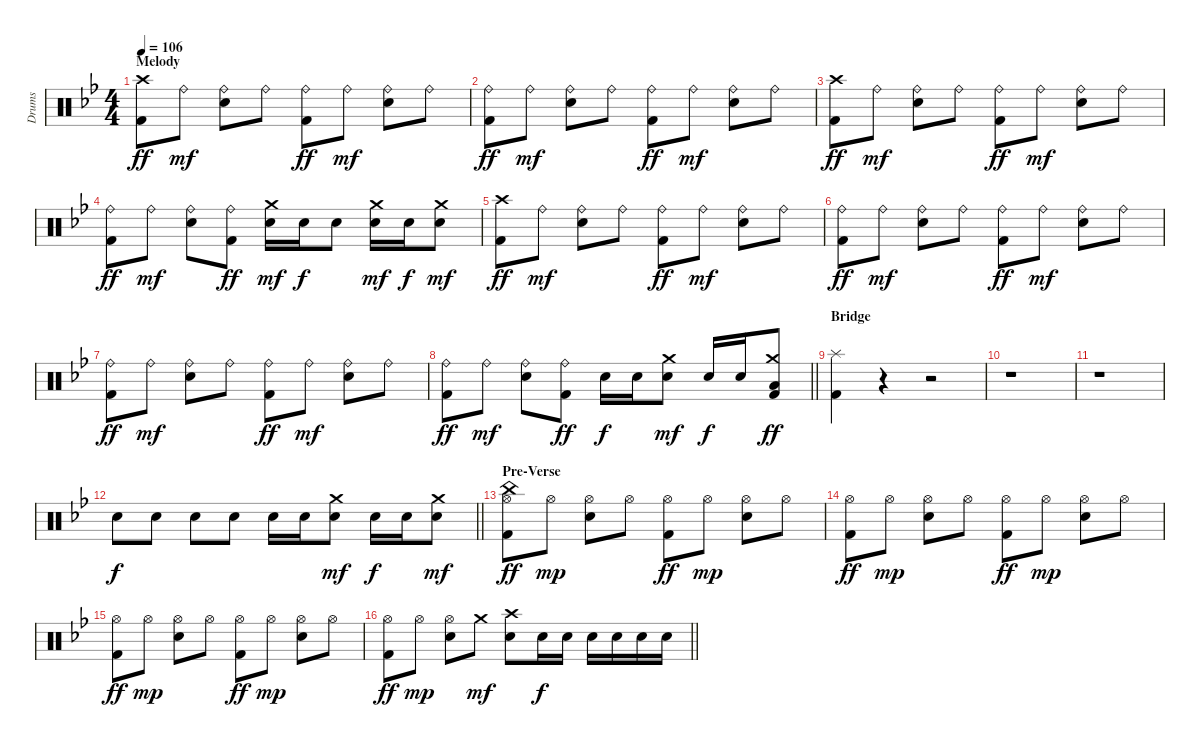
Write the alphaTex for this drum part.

\track ("Drums" "Drums") {instrument percussion}
\staff {score}
\articulation defaults
\ts (4 4)
\section ("" "Melody")
\tempo 106
\clef neutral
\ks bb
("Crash high (hit)" "Kick (hit) 2").8{dy ff} "Ride (bell)".8{dy mf} ("Ride (bell)" "Electric Snare (hit)").8 "Ride (bell)".8 ("Ride (bell)" "Kick (hit) 2").8{dy ff} "Ride (bell)".8{dy mf} ("Ride (bell)" "Electric Snare (hit)").8 "Ride (bell)".8 |
("Ride (bell)" "Kick (hit) 2").8{dy ff} "Ride (bell)".8{dy mf} ("Ride (bell)" "Electric Snare (hit)").8 "Ride (bell)".8 ("Ride (bell)" "Kick (hit) 2").8{dy ff} "Ride (bell)".8{dy mf} ("Ride (bell)" "Electric Snare (hit)").8 "Ride (bell)".8 |
("Crash high (hit)" "Kick (hit) 2").8{dy ff} "Ride (bell)".8{dy mf} ("Ride (bell)" "Electric Snare (hit)").8 "Ride (bell)".8 ("Ride (bell)" "Kick (hit) 2").8{dy ff} "Ride (bell)".8{dy mf} ("Ride (bell)" "Electric Snare (hit)").8 "Ride (bell)".8 |
("Ride (bell)" "Kick (hit) 2").8{dy ff} "Ride (bell)".8{dy mf} ("Ride (bell)" "Electric Snare (hit)").8 ("Ride (bell)" "Kick (hit) 2").8{dy ff} ("Crash medium (hit)" "Electric Snare (hit)").16{dy mf} "Electric Snare (hit)".16{dy f} "Electric Snare (hit)".8 ("Crash medium (hit)" "Electric Snare (hit)").16{dy mf} "Electric Snare (hit)".16{dy f} ("Crash medium (hit)" "Electric Snare (hit)").8{dy mf} |
("Crash high (hit)" "Kick (hit) 2").8{dy ff} "Ride (bell)".8{dy mf} ("Ride (bell)" "Electric Snare (hit)").8 "Ride (bell)".8 ("Ride (bell)" "Kick (hit) 2").8{dy ff} "Ride (bell)".8{dy mf} ("Ride (bell)" "Electric Snare (hit)").8 "Ride (bell)".8 |
("Ride (bell)" "Kick (hit) 2").8{dy ff} "Ride (bell)".8{dy mf} ("Ride (bell)" "Electric Snare (hit)").8 "Ride (bell)".8 ("Ride (bell)" "Kick (hit) 2").8{dy ff} "Ride (bell)".8{dy mf} ("Ride (bell)" "Electric Snare (hit)").8 "Ride (bell)".8 |
("Ride (bell)" "Kick (hit) 2").8{dy ff} "Ride (bell)".8{dy mf} ("Ride (bell)" "Electric Snare (hit)").8 "Ride (bell)".8 ("Ride (bell)" "Kick (hit) 2").8{dy ff} "Ride (bell)".8{dy mf} ("Ride (bell)" "Electric Snare (hit)").8 "Ride (bell)".8 |
\barLineRight lightlight
("Ride (bell)" "Kick (hit) 2").8{dy ff} "Ride (bell)".8{dy mf} ("Ride (bell)" "Electric Snare (hit)").8 ("Ride (bell)" "Kick (hit) 2").8{dy ff} "Electric Snare (hit)".16{dy f} "Electric Snare (hit)".16 ("Crash medium (hit)" "Electric Snare (hit)").8{dy mf} "Electric Snare (hit)".16{dy f} "Electric Snare (hit)".16 ("Crash medium (hit)" "Low Tom (hit)" "Kick (hit) 2").8{dy ff} |
\section ("" "Bridge")
("Splash (hit)" "Kick (hit) 2").4 r.4 r.2 |
r.1 |
r.1 |
\barLineRight lightlight "Electric Snare (hit)".8{dy f} "Electric Snare (hit)".8 "Electric Snare (hit)".8 "Electric Snare (hit)".8 "Electric Snare (hit)".16 "Electric Snare (hit)".16
("Crash medium (hit)" "Electric Snare (hit)").8{dy mf} "Electric Snare (hit)".16{dy f} "Electric Snare (hit)".16 ("Crash medium (hit)" "Electric Snare (hit)").8{dy mf} |
\section ("" "Pre-Verse")
("China (hit)" "Hi-Hat (open)" "Kick (hit) 2").8{dy ff} "Hi-Hat (open)".8{dy mp} ("Hi-Hat (open)" "Electric Snare (hit)").8 "Hi-Hat (open)".8 ("Hi-Hat (open)" "Kick (hit) 2").8{dy ff} "Hi-Hat (open)".8{dy mp} ("Hi-Hat (open)" "Electric Snare (hit)").8 "Hi-Hat (open)".8 |
("Hi-Hat (open)" "Kick (hit) 2").8{dy ff} "Hi-Hat (open)".8{dy mp} ("Hi-Hat (open)" "Electric Snare (hit)").8 "Hi-Hat (open)".8 ("Hi-Hat (open)" "Kick (hit) 2").8{dy ff} "Hi-Hat (open)".8{dy mp} ("Hi-Hat (open)" "Electric Snare (hit)").8 "Hi-Hat (open)".8 |
("Hi-Hat (open)" "Kick (hit) 2").8{dy ff} "Hi-Hat (open)".8{dy mp} ("Hi-Hat (open)" "Electric Snare (hit)").8 "Hi-Hat (open)".8 ("Hi-Hat (open)" "Kick (hit) 2").8{dy ff} "Hi-Hat (open)".8{dy mp} ("Hi-Hat (open)" "Electric Snare (hit)").8 "Hi-Hat (open)".8 |
\barLineRight lightlight
("Hi-Hat (open)" "Kick (hit) 2").8{dy ff} "Hi-Hat (open)".8{dy mp} ("Hi-Hat (open)" "Electric Snare (hit)").8 "Crash medium (hit)".8{dy mf} ("Crash high (hit)" "Electric Snare (hit)").8 "Electric Snare (hit)".16{dy f} "Electric Snare (hit)".16 "Electric Snare (hit)".16 "Electric Snare (hit)".16 "Electric Snare (hit)".16 "Electric Snare (hit)".16
